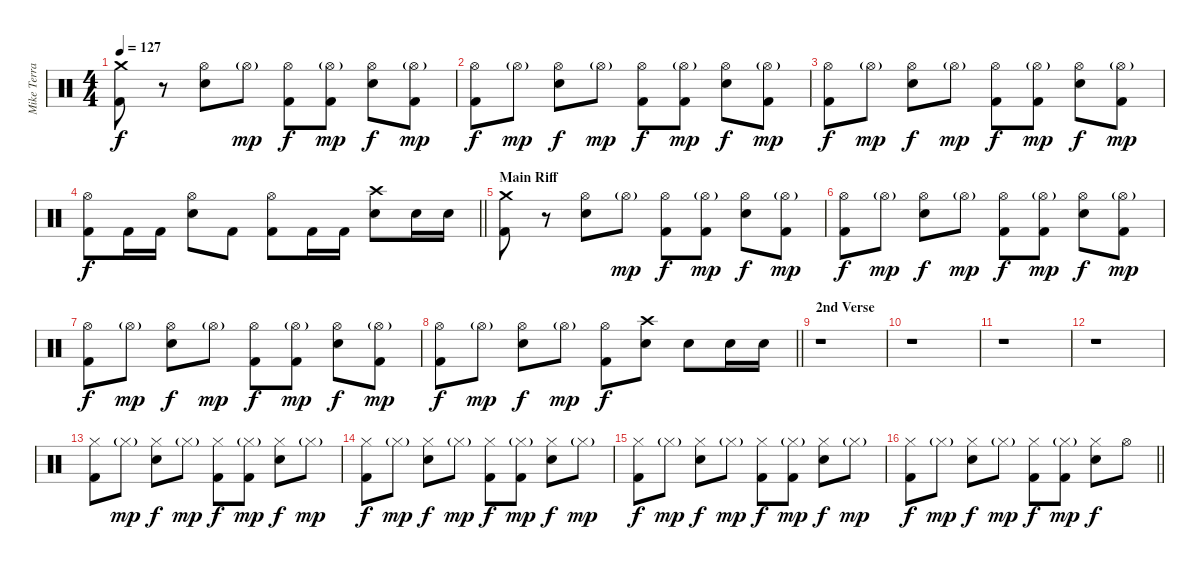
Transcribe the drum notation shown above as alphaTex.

\track ("Mike Terrana" "Mike Terra") {instrument percussion}
\staff {score}
\articulation defaults
\ts (4 4)
\tempo 127
\clef neutral
\ks c
("Crash medium (hit)" "Kick (hit) 2").8{dy f} r.8 ("Hi-Hat (open)" "Snare (hit) 2").8 "Hi-Hat (open)"{g}.8{dy mp} ("Hi-Hat (open)" "Kick (hit) 2").8{dy f} ("Hi-Hat (open)"{g} "Kick (hit) 2").8{dy mp} ("Hi-Hat (open)" "Snare (hit) 2").8{dy f} ("Hi-Hat (open)"{g} "Kick (hit) 2").8{dy mp} |
("Hi-Hat (open)" "Kick (hit) 2").8{dy f} "Hi-Hat (open)"{g}.8{dy mp} ("Hi-Hat (open)" "Snare (hit) 2").8{dy f} "Hi-Hat (open)"{g}.8{dy mp} ("Hi-Hat (open)" "Kick (hit) 2").8{dy f} ("Hi-Hat (open)"{g} "Kick (hit) 2").8{dy mp} ("Hi-Hat (open)" "Snare (hit) 2").8{dy f} ("Hi-Hat (open)"{g} "Kick (hit) 2").8{dy mp} |
("Hi-Hat (open)" "Kick (hit) 2").8{dy f} "Hi-Hat (open)"{g}.8{dy mp} ("Hi-Hat (open)" "Snare (hit) 2").8{dy f} "Hi-Hat (open)"{g}.8{dy mp} ("Hi-Hat (open)" "Kick (hit) 2").8{dy f} ("Hi-Hat (open)"{g} "Kick (hit) 2").8{dy mp} ("Hi-Hat (open)" "Snare (hit) 2").8{dy f} ("Hi-Hat (open)"{g} "Kick (hit) 2").8{dy mp} |
\barLineRight lightlight
("Hi-Hat (open)" "Kick (hit) 2").8{dy f} "Kick (hit) 2".16 "Kick (hit) 2".16 ("Hi-Hat (open)" "Snare (hit) 2").8 "Kick (hit) 2".8 ("Hi-Hat (open)" "Kick (hit) 2").8 "Kick (hit) 2".16 "Kick (hit) 2".16 ("Crash high (hit)" "Snare (hit) 2").8 "Snare (hit) 2".16 "Snare (hit) 2".16 |
\section ("" "Main Riff")
("Crash medium (hit)" "Kick (hit) 2").8 r.8 ("Hi-Hat (open)" "Snare (hit) 2").8 "Hi-Hat (open)"{g}.8{dy mp} ("Hi-Hat (open)" "Kick (hit) 2").8{dy f} ("Hi-Hat (open)"{g} "Kick (hit) 2").8{dy mp} ("Hi-Hat (open)" "Snare (hit) 2").8{dy f} ("Hi-Hat (open)"{g} "Kick (hit) 2").8{dy mp} |
("Hi-Hat (open)" "Kick (hit) 2").8{dy f} "Hi-Hat (open)"{g}.8{dy mp} ("Hi-Hat (open)" "Snare (hit) 2").8{dy f} "Hi-Hat (open)"{g}.8{dy mp} ("Hi-Hat (open)" "Kick (hit) 2").8{dy f} ("Hi-Hat (open)"{g} "Kick (hit) 2").8{dy mp} ("Hi-Hat (open)" "Snare (hit) 2").8{dy f} ("Hi-Hat (open)"{g} "Kick (hit) 2").8{dy mp} |
("Hi-Hat (open)" "Kick (hit) 2").8{dy f} "Hi-Hat (open)"{g}.8{dy mp} ("Hi-Hat (open)" "Snare (hit) 2").8{dy f} "Hi-Hat (open)"{g}.8{dy mp} ("Hi-Hat (open)" "Kick (hit) 2").8{dy f} ("Hi-Hat (open)"{g} "Kick (hit) 2").8{dy mp} ("Hi-Hat (open)" "Snare (hit) 2").8{dy f} ("Hi-Hat (open)"{g} "Kick (hit) 2").8{dy mp} |
\barLineRight lightlight
("Hi-Hat (open)" "Kick (hit) 2").8{dy f} "Hi-Hat (open)"{g}.8{dy mp} ("Hi-Hat (open)" "Snare (hit) 2").8{dy f} "Hi-Hat (open)"{g}.8{dy mp} ("Hi-Hat (open)" "Kick (hit) 2").8{dy f} ("Crash high (hit)" "Snare (hit) 2").8 "Snare (hit) 2".8 "Snare (hit) 2".16 "Snare (hit) 2".16 |
\section ("" "2nd Verse")
r.1 |
r.1 |
r.1 |
r.1 |
("Hi-Hat (closed)" "Kick (hit) 2").8 "Hi-Hat (closed)"{g}.8{dy mp} ("Hi-Hat (closed)" "Snare (hit) 2").8{dy f} "Hi-Hat (closed)"{g}.8{dy mp} ("Hi-Hat (closed)" "Kick (hit) 2").8{dy f} ("Hi-Hat (closed)"{g} "Kick (hit) 2").8{dy mp} ("Hi-Hat (closed)" "Snare (hit) 2").8{dy f} "Hi-Hat (closed)"{g}.8{dy mp} |
("Hi-Hat (closed)" "Kick (hit) 2").8{dy f} "Hi-Hat (closed)"{g}.8{dy mp} ("Hi-Hat (closed)" "Snare (hit) 2").8{dy f} "Hi-Hat (closed)"{g}.8{dy mp} ("Hi-Hat (closed)" "Kick (hit) 2").8{dy f} ("Hi-Hat (closed)"{g} "Kick (hit) 2").8{dy mp} ("Hi-Hat (closed)" "Snare (hit) 2").8{dy f} "Hi-Hat (closed)"{g}.8{dy mp} |
("Hi-Hat (closed)" "Kick (hit) 2").8{dy f} "Hi-Hat (closed)"{g}.8{dy mp} ("Hi-Hat (closed)" "Snare (hit) 2").8{dy f} "Hi-Hat (closed)"{g}.8{dy mp} ("Hi-Hat (closed)" "Kick (hit) 2").8{dy f} ("Hi-Hat (closed)"{g} "Kick (hit) 2").8{dy mp} ("Hi-Hat (closed)" "Snare (hit) 2").8{dy f} "Hi-Hat (closed)"{g}.8{dy mp} |
\barLineRight lightlight
("Hi-Hat (closed)" "Kick (hit) 2").8{dy f} "Hi-Hat (closed)"{g}.8{dy mp} ("Hi-Hat (closed)" "Snare (hit) 2").8{dy f} "Hi-Hat (closed)"{g}.8{dy mp} ("Hi-Hat (closed)" "Kick (hit) 2").8{dy f} ("Hi-Hat (closed)"{g} "Kick (hit) 2").8{dy mp} ("Hi-Hat (closed)" "Snare (hit) 2").8{dy f} "Hi-Hat (open)".8
